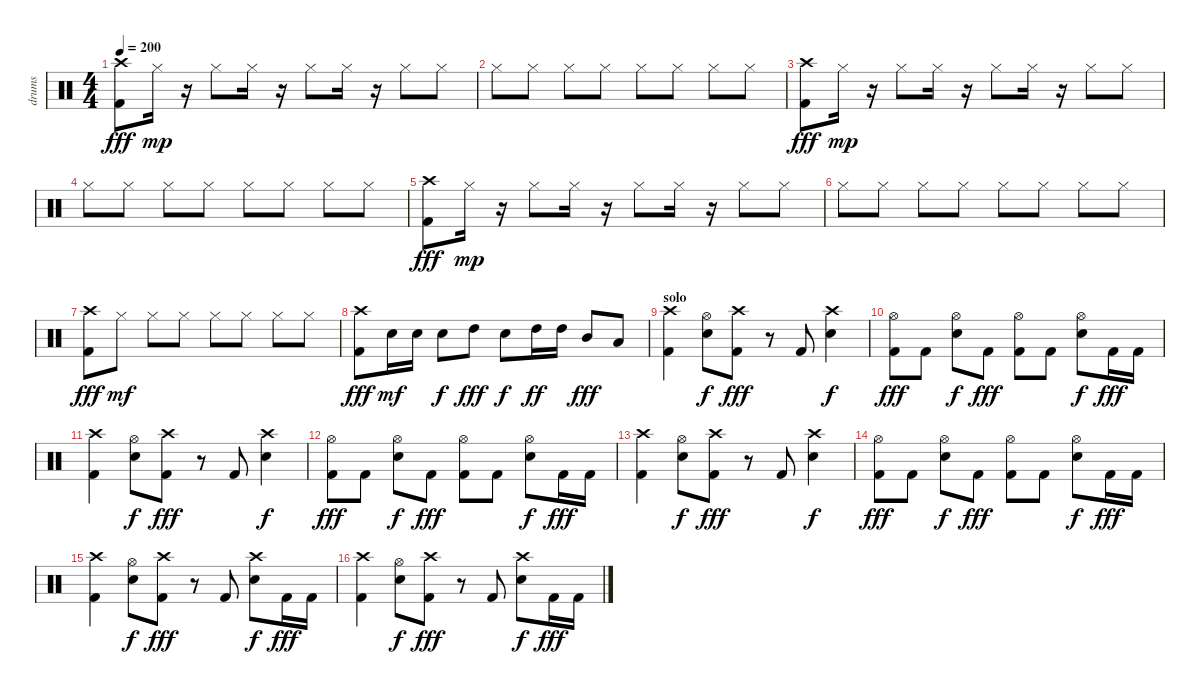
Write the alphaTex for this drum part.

\track ("drums" "drums") {instrument percussion}
\staff {score}
\articulation defaults
\ts (4 4)
\tempo 200
\clef neutral
\ks c
("Crash high (hit)" "Kick (hit) 2").8{dy fff} "Hi-Hat (closed)".16{dy mp} r.16 "Hi-Hat (closed)".8 "Hi-Hat (closed)".16 r.16 "Hi-Hat (closed)".8 "Hi-Hat (closed)".16 r.16 "Hi-Hat (closed)".8 "Hi-Hat (closed)".8 |
"Hi-Hat (closed)".8 "Hi-Hat (closed)".8 "Hi-Hat (closed)".8 "Hi-Hat (closed)".8 "Hi-Hat (closed)".8 "Hi-Hat (closed)".8 "Hi-Hat (closed)".8 "Hi-Hat (closed)".8 |
("Crash high (hit)" "Kick (hit) 2").8{dy fff} "Hi-Hat (closed)".16{dy mp} r.16 "Hi-Hat (closed)".8 "Hi-Hat (closed)".16 r.16 "Hi-Hat (closed)".8 "Hi-Hat (closed)".16 r.16 "Hi-Hat (closed)".8 "Hi-Hat (closed)".8 |
"Hi-Hat (closed)".8 "Hi-Hat (closed)".8 "Hi-Hat (closed)".8 "Hi-Hat (closed)".8 "Hi-Hat (closed)".8 "Hi-Hat (closed)".8 "Hi-Hat (closed)".8 "Hi-Hat (closed)".8 |
("Crash high (hit)" "Kick (hit) 2").8{dy fff} "Hi-Hat (closed)".16{dy mp} r.16 "Hi-Hat (closed)".8 "Hi-Hat (closed)".16 r.16 "Hi-Hat (closed)".8 "Hi-Hat (closed)".16 r.16 "Hi-Hat (closed)".8 "Hi-Hat (closed)".8 |
"Hi-Hat (closed)".8 "Hi-Hat (closed)".8 "Hi-Hat (closed)".8 "Hi-Hat (closed)".8 "Hi-Hat (closed)".8 "Hi-Hat (closed)".8 "Hi-Hat (closed)".8 "Hi-Hat (closed)".8 |
("Crash high (hit)" "Kick (hit) 2").8{dy fff} "Hi-Hat (closed)".8{dy mf} "Hi-Hat (closed)".8 "Hi-Hat (closed)".8 "Hi-Hat (closed)".8 "Hi-Hat (closed)".8 "Hi-Hat (closed)".8 "Hi-Hat (closed)".8 |
("Crash high (hit)" "Kick (hit) 2").8{dy fff} "Snare (hit) 2".16{dy mf} "Snare (hit) 2".16 "Snare (hit) 2".8{dy f} "High Tom (hit)".8{dy fff} "Snare (hit) 2".8{dy f} "High Tom (hit)".16{dy ff} "High Tom (hit)".16 "Mid Tom (hit)".8{dy fff} "Low Tom (hit)".8 |
\section ("" "solo")
("Crash high (hit)" "Kick (hit) 2").4 ("Hi-Hat (open)" "Snare (hit) 2").8{dy f} ("Crash high (hit)" "Kick (hit) 2").8{dy fff} r.8 "Kick (hit) 2".8 ("Crash high (hit)" "Snare (hit) 2").4{dy f} |
("Hi-Hat (open)" "Kick (hit) 2").8{dy fff} "Kick (hit) 2".8 ("Hi-Hat (open)" "Snare (hit) 2").8{dy f} "Kick (hit) 2".8{dy fff} ("Hi-Hat (open)" "Kick (hit) 2").8 "Kick (hit) 2".8 ("Hi-Hat (open)" "Snare (hit) 2").8{dy f} "Kick (hit) 2".16{dy fff} "Kick (hit) 2".16 |
("Crash high (hit)" "Kick (hit) 2").4 ("Hi-Hat (open)" "Snare (hit) 2").8{dy f} ("Crash high (hit)" "Kick (hit) 2").8{dy fff} r.8 "Kick (hit) 2".8 ("Crash high (hit)" "Snare (hit) 2").4{dy f} |
("Hi-Hat (open)" "Kick (hit) 2").8{dy fff} "Kick (hit) 2".8 ("Hi-Hat (open)" "Snare (hit) 2").8{dy f} "Kick (hit) 2".8{dy fff} ("Hi-Hat (open)" "Kick (hit) 2").8 "Kick (hit) 2".8 ("Hi-Hat (open)" "Snare (hit) 2").8{dy f} "Kick (hit) 2".16{dy fff} "Kick (hit) 2".16 |
("Crash high (hit)" "Kick (hit) 2").4 ("Hi-Hat (open)" "Snare (hit) 2").8{dy f} ("Crash high (hit)" "Kick (hit) 2").8{dy fff} r.8 "Kick (hit) 2".8 ("Crash high (hit)" "Snare (hit) 2").4{dy f} |
("Hi-Hat (open)" "Kick (hit) 2").8{dy fff} "Kick (hit) 2".8 ("Hi-Hat (open)" "Snare (hit) 2").8{dy f} "Kick (hit) 2".8{dy fff} ("Hi-Hat (open)" "Kick (hit) 2").8 "Kick (hit) 2".8 ("Hi-Hat (open)" "Snare (hit) 2").8{dy f} "Kick (hit) 2".16{dy fff} "Kick (hit) 2".16 |
("Crash high (hit)" "Kick (hit) 2").4 ("Hi-Hat (open)" "Snare (hit) 2").8{dy f} ("Crash high (hit)" "Kick (hit) 2").8{dy fff} r.8 "Kick (hit) 2".8 ("Crash high (hit)" "Snare (hit) 2").8{dy f} "Kick (hit) 2".16{dy fff} "Kick (hit) 2".16 |
("Crash high (hit)" "Kick (hit) 2").4 ("Hi-Hat (open)" "Snare (hit) 2").8{dy f} ("Crash high (hit)" "Kick (hit) 2").8{dy fff} r.8 "Kick (hit) 2".8 ("Crash high (hit)" "Snare (hit) 2").8{dy f} "Kick (hit) 2".16{dy fff} "Kick (hit) 2".16
